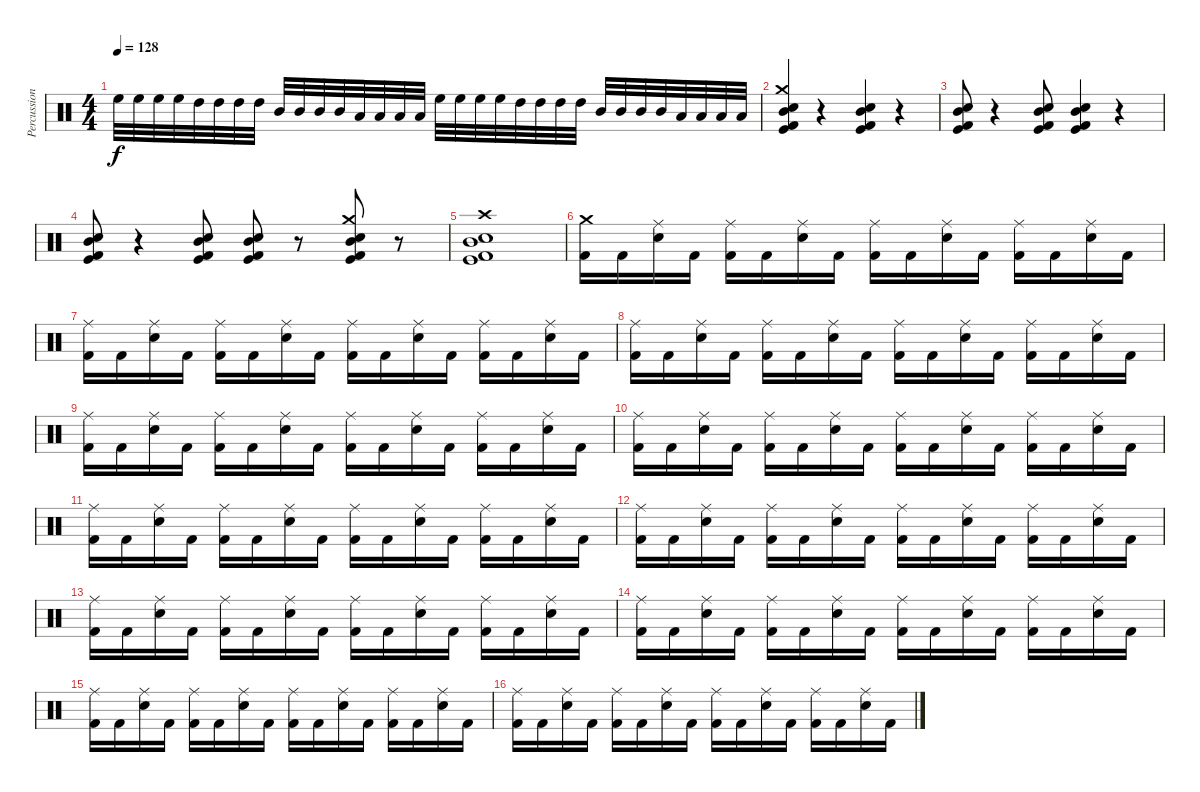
\track ("Percussion" "Percussion") {instrument percussion}
\staff {score}
\articulation defaults
\ts (4 4)
\tempo 128
\clef neutral
\ks c "High Floor Tom (hit)".32{dy f volume 15} "High Floor Tom (hit)".32 "High Floor Tom (hit)".32 "High Floor Tom (hit)".32 "High Tom (hit)".32 "High Tom (hit)".32 "High Tom (hit)".32 "High Tom (hit)".32 "Mid Tom (hit)".32 "Mid Tom (hit)".32 "Mid Tom (hit)".32 "Mid Tom (hit)".32 "Low Tom (hit)".32 "Low Tom (hit)".32 "Low Tom (hit)".32 "Low Tom (hit)".32 "High Floor Tom (hit)".32 "High Floor Tom (hit)".32 "High Floor Tom (hit)".32 "High Floor Tom (hit)".32 "High Tom (hit)".32 "High Tom (hit)".32 "High Tom (hit)".32 "High Tom (hit)".32 "Mid Tom (hit)".32 "Mid Tom (hit)".32 "Mid Tom (hit)".32 "Mid Tom (hit)".32 "Low Tom (hit)".32 "Low Tom (hit)".32 "Low Tom (hit)".32 "Low Tom (hit)".32
|
("Crash medium (hit)" "Mid Tom (hit)" "Snare (hit) 2" "Kick (hit)" "Kick (hit) 2").4 r.4 ("Mid Tom (hit)" "Snare (hit) 2" "Kick (hit)" "Kick (hit) 2").4 r.4 |
("Mid Tom (hit)" "Snare (hit) 2" "Kick (hit)" "Kick (hit) 2").8 r.4 ("Mid Tom (hit)" "Snare (hit) 2" "Kick (hit)" "Kick (hit) 2").8 ("Mid Tom (hit)" "Snare (hit) 2" "Kick (hit)" "Kick (hit) 2").4 r.4 |
("Mid Tom (hit)" "Snare (hit) 2" "Kick (hit)" "Kick (hit) 2").8 r.4 ("Mid Tom (hit)" "Snare (hit) 2" "Kick (hit)" "Kick (hit) 2").8 ("Mid Tom (hit)" "Snare (hit) 2" "Kick (hit)" "Kick (hit) 2").8 r.8 ("Crash medium (hit)" "Mid Tom (hit)" "Snare (hit) 2" "Kick (hit)" "Kick (hit) 2").8 r.8 |
("Crash high (hit)" "Mid Tom (hit)" "Snare (hit) 2" "Kick (hit)" "Kick (hit) 2").1 |
("Crash medium (hit)" "Kick (hit) 2").16{volume 11} "Kick (hit) 2".16 ("Ride (middle)" "Snare (hit) 2").16 "Kick (hit) 2".16 ("Ride (middle)" "Kick (hit) 2").16 "Kick (hit) 2".16 ("Ride (middle)" "Snare (hit) 2").16 "Kick (hit) 2".16 ("Ride (middle)" "Kick (hit) 2").16 "Kick (hit) 2".16 ("Ride (middle)" "Snare (hit) 2").16 "Kick (hit) 2".16 ("Ride (middle)" "Kick (hit) 2").16 "Kick (hit) 2".16 ("Ride (middle)" "Snare (hit) 2").16 "Kick (hit) 2".16 |
("Ride (middle)" "Kick (hit) 2").16 "Kick (hit) 2".16 ("Ride (middle)" "Snare (hit) 2").16 "Kick (hit) 2".16 ("Ride (middle)" "Kick (hit) 2").16 "Kick (hit) 2".16 ("Ride (middle)" "Snare (hit) 2").16 "Kick (hit) 2".16 ("Ride (middle)" "Kick (hit) 2").16 "Kick (hit) 2".16 ("Ride (middle)" "Snare (hit) 2").16 "Kick (hit) 2".16 ("Ride (middle)" "Kick (hit) 2").16 "Kick (hit) 2".16 ("Ride (middle)" "Snare (hit) 2").16 "Kick (hit) 2".16 |
("Ride (middle)" "Kick (hit) 2").16 "Kick (hit) 2".16 ("Ride (middle)" "Snare (hit) 2").16 "Kick (hit) 2".16 ("Ride (middle)" "Kick (hit) 2").16 "Kick (hit) 2".16 ("Ride (middle)" "Snare (hit) 2").16 "Kick (hit) 2".16 ("Ride (middle)" "Kick (hit) 2").16 "Kick (hit) 2".16 ("Ride (middle)" "Snare (hit) 2").16 "Kick (hit) 2".16 ("Ride (middle)" "Kick (hit) 2").16 "Kick (hit) 2".16 ("Ride (middle)" "Snare (hit) 2").16 "Kick (hit) 2".16 |
("Ride (middle)" "Kick (hit) 2").16 "Kick (hit) 2".16 ("Ride (middle)" "Snare (hit) 2").16 "Kick (hit) 2".16 ("Ride (middle)" "Kick (hit) 2").16 "Kick (hit) 2".16 ("Ride (middle)" "Snare (hit) 2").16 "Kick (hit) 2".16 ("Ride (middle)" "Kick (hit) 2").16 "Kick (hit) 2".16 ("Ride (middle)" "Snare (hit) 2").16 "Kick (hit) 2".16 ("Ride (middle)" "Kick (hit) 2").16 "Kick (hit) 2".16 ("Ride (middle)" "Snare (hit) 2").16 "Kick (hit) 2".16 |
("Ride (middle)" "Kick (hit) 2").16 "Kick (hit) 2".16 ("Ride (middle)" "Snare (hit) 2").16 "Kick (hit) 2".16 ("Ride (middle)" "Kick (hit) 2").16 "Kick (hit) 2".16 ("Ride (middle)" "Snare (hit) 2").16 "Kick (hit) 2".16 ("Ride (middle)" "Kick (hit) 2").16 "Kick (hit) 2".16 ("Ride (middle)" "Snare (hit) 2").16 "Kick (hit) 2".16 ("Ride (middle)" "Kick (hit) 2").16 "Kick (hit) 2".16 ("Ride (middle)" "Snare (hit) 2").16 "Kick (hit) 2".16 |
("Ride (middle)" "Kick (hit) 2").16 "Kick (hit) 2".16 ("Ride (middle)" "Snare (hit) 2").16 "Kick (hit) 2".16 ("Ride (middle)" "Kick (hit) 2").16 "Kick (hit) 2".16 ("Ride (middle)" "Snare (hit) 2").16 "Kick (hit) 2".16 ("Ride (middle)" "Kick (hit) 2").16 "Kick (hit) 2".16 ("Ride (middle)" "Snare (hit) 2").16 "Kick (hit) 2".16 ("Ride (middle)" "Kick (hit) 2").16 "Kick (hit) 2".16 ("Ride (middle)" "Snare (hit) 2").16 "Kick (hit) 2".16 |
("Ride (middle)" "Kick (hit) 2").16 "Kick (hit) 2".16 ("Ride (middle)" "Snare (hit) 2").16 "Kick (hit) 2".16 ("Ride (middle)" "Kick (hit) 2").16 "Kick (hit) 2".16 ("Ride (middle)" "Snare (hit) 2").16 "Kick (hit) 2".16 ("Ride (middle)" "Kick (hit) 2").16 "Kick (hit) 2".16 ("Ride (middle)" "Snare (hit) 2").16 "Kick (hit) 2".16 ("Ride (middle)" "Kick (hit) 2").16 "Kick (hit) 2".16 ("Ride (middle)" "Snare (hit) 2").16 "Kick (hit) 2".16 |
("Ride (middle)" "Kick (hit) 2").16 "Kick (hit) 2".16 ("Ride (middle)" "Snare (hit) 2").16 "Kick (hit) 2".16 ("Ride (middle)" "Kick (hit) 2").16 "Kick (hit) 2".16 ("Ride (middle)" "Snare (hit) 2").16 "Kick (hit) 2".16 ("Ride (middle)" "Kick (hit) 2").16 "Kick (hit) 2".16 ("Ride (middle)" "Snare (hit) 2").16 "Kick (hit) 2".16 ("Ride (middle)" "Kick (hit) 2").16 "Kick (hit) 2".16 ("Ride (middle)" "Snare (hit) 2").16 "Kick (hit) 2".16 |
("Ride (middle)" "Kick (hit) 2").16 "Kick (hit) 2".16 ("Ride (middle)" "Snare (hit) 2").16 "Kick (hit) 2".16 ("Ride (middle)" "Kick (hit) 2").16 "Kick (hit) 2".16 ("Ride (middle)" "Snare (hit) 2").16 "Kick (hit) 2".16 ("Ride (middle)" "Kick (hit) 2").16 "Kick (hit) 2".16 ("Ride (middle)" "Snare (hit) 2").16 "Kick (hit) 2".16 ("Ride (middle)" "Kick (hit) 2").16 "Kick (hit) 2".16 ("Ride (middle)" "Snare (hit) 2").16 "Kick (hit) 2".16 |
("Ride (middle)" "Kick (hit) 2").16 "Kick (hit) 2".16 ("Ride (middle)" "Snare (hit) 2").16 "Kick (hit) 2".16 ("Ride (middle)" "Kick (hit) 2").16 "Kick (hit) 2".16 ("Ride (middle)" "Snare (hit) 2").16 "Kick (hit) 2".16 ("Ride (middle)" "Kick (hit) 2").16 "Kick (hit) 2".16 ("Ride (middle)" "Snare (hit) 2").16 "Kick (hit) 2".16 ("Ride (middle)" "Kick (hit) 2").16 "Kick (hit) 2".16 ("Ride (middle)" "Snare (hit) 2").16 "Kick (hit) 2".16 |
("Ride (middle)" "Kick (hit) 2").16 "Kick (hit) 2".16 ("Ride (middle)" "Snare (hit) 2").16 "Kick (hit) 2".16 ("Ride (middle)" "Kick (hit) 2").16 "Kick (hit) 2".16 ("Ride (middle)" "Snare (hit) 2").16 "Kick (hit) 2".16 ("Ride (middle)" "Kick (hit) 2").16 "Kick (hit) 2".16 ("Ride (middle)" "Snare (hit) 2").16 "Kick (hit) 2".16 ("Ride (middle)" "Kick (hit) 2").16 "Kick (hit) 2".16 ("Ride (middle)" "Snare (hit) 2").16 "Kick (hit) 2".16
